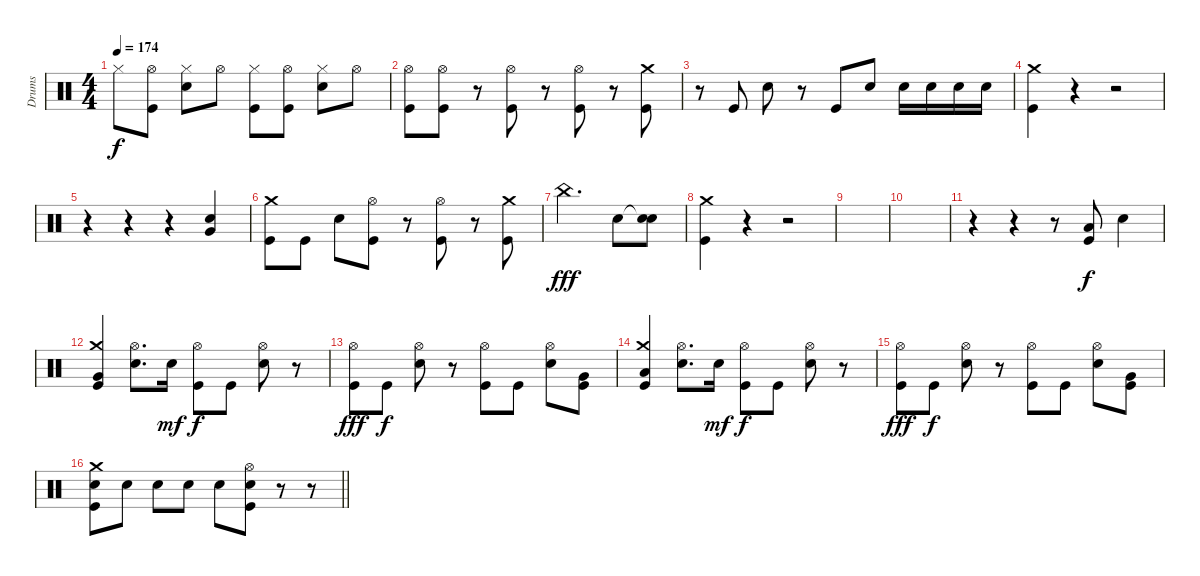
\track ("Drums" "Drums") {instrument percussion}
\staff {score}
\articulation defaults
\ts (4 4)
\tempo 174
\clef neutral
\ks c "Hi-Hat (closed)".8{dy f}
("Hi-Hat (open)" "Kick (hit)").8 ("Hi-Hat (closed)" "Electric Snare (hit)").8 "Hi-Hat (open)".8 ("Hi-Hat (closed)" "Kick (hit)").8 ("Hi-Hat (open)" "Kick (hit)").8 ("Hi-Hat (closed)" "Electric Snare (hit)").8 "Hi-Hat (open)".8 |
("Hi-Hat (open)" "Kick (hit)").8 ("Hi-Hat (open)" "Kick (hit)").8 r.8 ("Hi-Hat (open)" "Kick (hit)").8 r.8 ("Hi-Hat (open)" "Kick (hit)").8 r.8 ("Crash medium (hit)" "Kick (hit)").8 |
r.8 "Kick (hit)".8 "Electric Snare (hit)".8 r.8 "Kick (hit)".8 "Electric Snare (hit)".8 "Electric Snare (hit)".16 "Electric Snare (hit)".16 "Electric Snare (hit)".16 "Electric Snare (hit)".16 |
("Crash medium (hit)" "Kick (hit)").4 r.4 r.2 |
r.4 r.4 r.4 ("Electric Snare (hit)" "Very Low Tom (hit)").4 |
("Crash medium (hit)" "Kick (hit)").8 "Kick (hit)".8 "Electric Snare (hit)".8 ("Hi-Hat (open)" "Kick (hit)").8 r.8 ("Hi-Hat (open)" "Kick (hit)").8 r.8 ("Crash medium (hit)" "Kick (hit)").8 |
"China (hit)".2{d dy fff} "Electric Snare (hit)".8 ("Snare (hit)"{t} "Electric Snare (hit)").8 |
("Crash medium (hit)" "Kick (hit)").4 r.4 r.2 |
|
|
r.4 r.4 r.8 ("Low Floor Tom (hit)" "Kick (hit)").8{dy f} "Electric Snare (hit)".4 |
("Crash medium (hit)" "Very Low Tom (hit)" "Kick (hit)").4 ("Hi-Hat (open)" "Electric Snare (hit)").8{d} "Electric Snare (hit)".16{dy mf} ("Hi-Hat (open)" "Kick (hit)").8{dy f} "Kick (hit)".8 ("Hi-Hat (open)" "Electric Snare (hit)").8 r.8 |
("Hi-Hat (open)" "Kick (hit)").8{dy fff} "Kick (hit)".8{dy f} ("Hi-Hat (open)" "Electric Snare (hit)").8 r.8 ("Hi-Hat (open)" "Kick (hit)").8 "Kick (hit)".8 ("Hi-Hat (open)" "Electric Snare (hit)").8 ("Very Low Tom (hit)" "Kick (hit)").8 |
("Crash medium (hit)" "Low Floor Tom (hit)" "Kick (hit)").4 ("Hi-Hat (open)" "Electric Snare (hit)").8{d} "Electric Snare (hit)".16{dy mf} ("Hi-Hat (open)" "Kick (hit)").8{dy f} "Kick (hit)".8 ("Hi-Hat (open)" "Electric Snare (hit)").8 r.8 |
("Hi-Hat (open)" "Kick (hit)").8{dy fff} "Kick (hit)".8{dy f} ("Hi-Hat (open)" "Electric Snare (hit)").8 r.8 ("Hi-Hat (open)" "Kick (hit)").8 "Kick (hit)".8 ("Hi-Hat (open)" "Electric Snare (hit)").8 ("Very Low Tom (hit)" "Kick (hit)").8 |
\barLineRight lightlight
("Crash medium (hit)" "Electric Snare (hit)" "Kick (hit)").8 "Electric Snare (hit)".8 "Electric Snare (hit)".8 "Electric Snare (hit)".8 "Electric Snare (hit)".8 ("Hi-Hat (open)" "Electric Snare (hit)" "Kick (hit)").8 r.8 r.8
